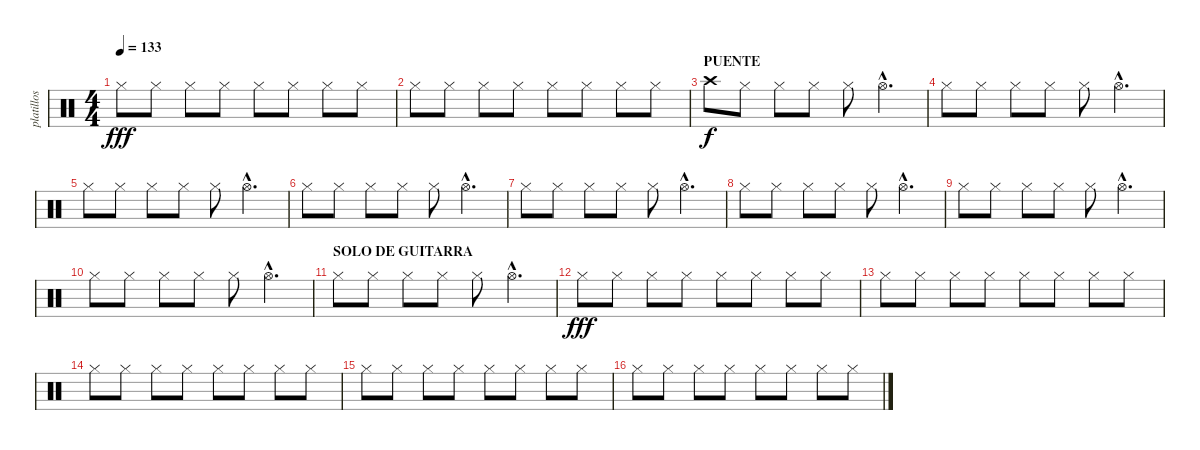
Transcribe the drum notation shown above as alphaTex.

\track ("platillos" "platillos") {instrument percussion}
\staff {score}
\articulation defaults
\ts (4 4)
\tempo 133
\clef neutral
\ks c "Hi-Hat (closed)".8{dy fff} "Hi-Hat (closed)".8 "Hi-Hat (closed)".8 "Hi-Hat (closed)".8 "Hi-Hat (closed)".8 "Hi-Hat (closed)".8 "Hi-Hat (closed)".8 "Hi-Hat (closed)".8
|
"Hi-Hat (closed)".8 "Hi-Hat (closed)".8 "Hi-Hat (closed)".8 "Hi-Hat (closed)".8 "Hi-Hat (closed)".8 "Hi-Hat (closed)".8 "Hi-Hat (closed)".8 "Hi-Hat (closed)".8 |
\section ("" "PUENTE")
"Crash high (hit)".8{dy f} "Hi-Hat (closed)".8 "Hi-Hat (closed)".8 "Hi-Hat (closed)".8 "Hi-Hat (closed)".8 "Hi-Hat (open)"{hac}.4{d} |
"Hi-Hat (closed)".8 "Hi-Hat (closed)".8 "Hi-Hat (closed)".8 "Hi-Hat (closed)".8 "Hi-Hat (closed)".8 "Hi-Hat (open)"{hac}.4{d} |
"Hi-Hat (closed)".8 "Hi-Hat (closed)".8 "Hi-Hat (closed)".8 "Hi-Hat (closed)".8 "Hi-Hat (closed)".8 "Hi-Hat (open)"{hac}.4{d} |
"Hi-Hat (closed)".8 "Hi-Hat (closed)".8 "Hi-Hat (closed)".8 "Hi-Hat (closed)".8 "Hi-Hat (closed)".8 "Hi-Hat (open)"{hac}.4{d} |
"Hi-Hat (closed)".8 "Hi-Hat (closed)".8 "Hi-Hat (closed)".8 "Hi-Hat (closed)".8 "Hi-Hat (closed)".8 "Hi-Hat (open)"{hac}.4{d} |
"Hi-Hat (closed)".8 "Hi-Hat (closed)".8 "Hi-Hat (closed)".8 "Hi-Hat (closed)".8 "Hi-Hat (closed)".8 "Hi-Hat (open)"{hac}.4{d} |
"Hi-Hat (closed)".8 "Hi-Hat (closed)".8 "Hi-Hat (closed)".8 "Hi-Hat (closed)".8 "Hi-Hat (closed)".8 "Hi-Hat (open)"{hac}.4{d} |
"Hi-Hat (closed)".8 "Hi-Hat (closed)".8 "Hi-Hat (closed)".8 "Hi-Hat (closed)".8 "Hi-Hat (closed)".8 "Hi-Hat (open)"{hac}.4{d} |
\section ("" "SOLO DE GUITARRA")
"Hi-Hat (closed)".8 "Hi-Hat (closed)".8 "Hi-Hat (closed)".8 "Hi-Hat (closed)".8 "Hi-Hat (closed)".8 "Hi-Hat (open)"{hac}.4{d} |
"Hi-Hat (closed)".8{dy fff} "Hi-Hat (closed)".8 "Hi-Hat (closed)".8 "Hi-Hat (closed)".8 "Hi-Hat (closed)".8 "Hi-Hat (closed)".8 "Hi-Hat (closed)".8 "Hi-Hat (closed)".8 |
"Hi-Hat (closed)".8 "Hi-Hat (closed)".8 "Hi-Hat (closed)".8 "Hi-Hat (closed)".8 "Hi-Hat (closed)".8 "Hi-Hat (closed)".8 "Hi-Hat (closed)".8 "Hi-Hat (closed)".8 |
"Hi-Hat (closed)".8 "Hi-Hat (closed)".8 "Hi-Hat (closed)".8 "Hi-Hat (closed)".8 "Hi-Hat (closed)".8 "Hi-Hat (closed)".8 "Hi-Hat (closed)".8 "Hi-Hat (closed)".8 |
"Hi-Hat (closed)".8 "Hi-Hat (closed)".8 "Hi-Hat (closed)".8 "Hi-Hat (closed)".8 "Hi-Hat (closed)".8 "Hi-Hat (closed)".8 "Hi-Hat (closed)".8 "Hi-Hat (closed)".8 |
"Hi-Hat (closed)".8 "Hi-Hat (closed)".8 "Hi-Hat (closed)".8 "Hi-Hat (closed)".8 "Hi-Hat (closed)".8 "Hi-Hat (closed)".8 "Hi-Hat (closed)".8 "Hi-Hat (closed)".8
